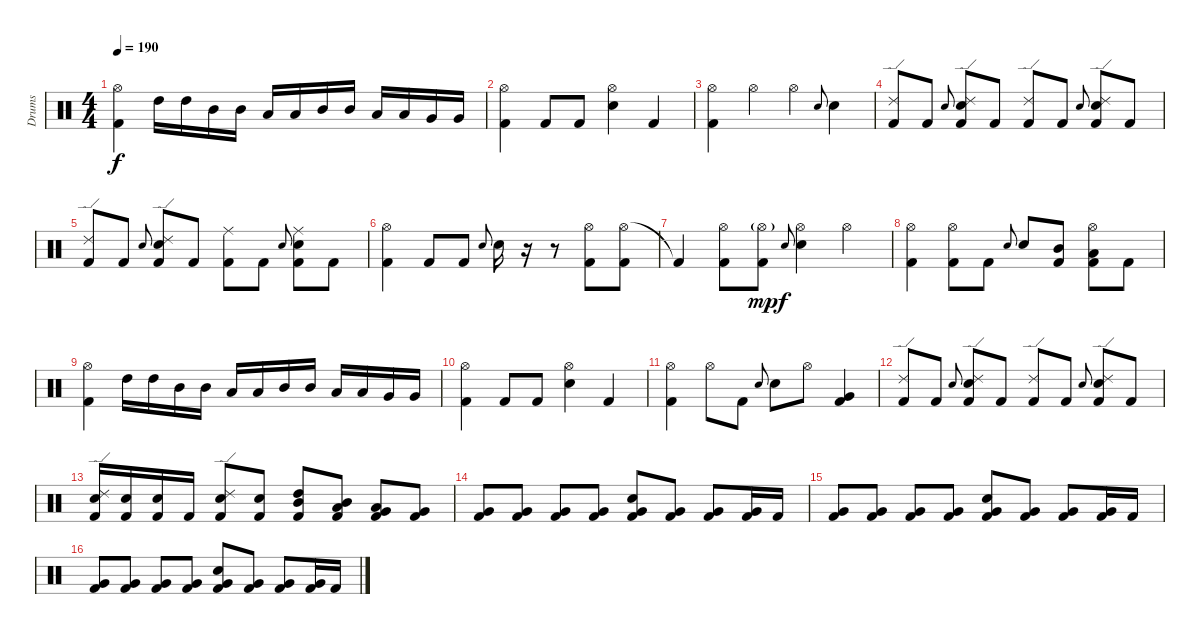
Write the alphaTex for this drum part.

\track ("Drums" "Drums") {instrument percussion}
\staff {score}
\articulation defaults
\ts (4 4)
\tempo 190
\clef neutral
\ks c
("Hi-Hat (open)" "Kick (hit) 2").4{dy f} "High Tom (hit)".16 "High Tom (hit)".16 "Mid Tom (hit)".16 "Mid Tom (hit)".16 "Low Tom (hit)".16 "Low Tom (hit)".16 "Mid Tom (hit)".16 "Mid Tom (hit)".16 "Low Tom (hit)".16 "Low Tom (hit)".16 "Very Low Tom (hit)".16 "Very Low Tom (hit)".16 |
("Hi-Hat (open)" "Kick (hit) 2").4 "Kick (hit) 2".8 "Kick (hit) 2".8 ("Hi-Hat (open)" "Snare (hit) 2").4 "Kick (hit) 2".4 |
("Hi-Hat (open)" "Kick (hit) 2").4 "Hi-Hat (open)".4 "Hi-Hat (open)".4 "Snare (hit) 2".8{gr onbeat} "Snare (hit) 2".4 |
("Ride (edge) 2" "Kick (hit) 2").8 "Kick (hit) 2".8 "Snare (hit) 2".8{gr onbeat} ("Ride (edge) 2" "Snare (hit) 2" "Kick (hit) 2").8 "Kick (hit) 2".8 ("Ride (edge) 2" "Kick (hit) 2").8 "Kick (hit) 2".8 "Snare (hit) 2".8{gr onbeat} ("Ride (edge) 2" "Snare (hit) 2" "Kick (hit) 2").8 "Kick (hit) 2".8 |
("Ride (edge) 2" "Kick (hit) 2").8 "Kick (hit) 2".8 "Snare (hit) 2".8{gr onbeat} ("Ride (edge) 2" "Snare (hit) 2" "Kick (hit) 2").8 "Kick (hit) 2".8 ("Ride (middle)" "Kick (hit) 2").8 "Kick (hit) 2".8 "Snare (hit) 2".8{gr onbeat} ("Ride (middle)" "Snare (hit) 2" "Kick (hit) 2").8 "Kick (hit) 2".8 |
("Hi-Hat (open)" "Kick (hit) 2").4 "Kick (hit) 2".8 "Kick (hit) 2".8 "Snare (hit) 2".8{gr onbeat} "Snare (hit) 2".16 r.16 r.8 ("Hi-Hat (open)" "Kick (hit) 2").8 ("Hi-Hat (open)" "Kick (hit) 2").8 |
"Kick (hit) 2"{t}.4 ("Hi-Hat (open)" "Kick (hit) 2").8 ("Hi-Hat (open)"{g} "Kick (hit) 2").8{dy mp} "Snare (hit) 2".8{gr onbeat dy f} ("Hi-Hat (open)" "Snare (hit) 2").4 "Hi-Hat (open)".4 |
("Hi-Hat (open)" "Kick (hit) 2").4 ("Hi-Hat (open)" "Kick (hit) 2").8 "Kick (hit) 2".8 "Snare (hit) 2".8{gr onbeat} "Snare (hit) 2".8 ("Mid Tom (hit)" "Kick (hit) 2").8 ("Hi-Hat (open)" "Low Tom (hit)" "Kick (hit) 2").8 "Kick (hit) 2".8 |
("Hi-Hat (open)" "Kick (hit) 2").4 "High Tom (hit)".16 "High Tom (hit)".16 "Mid Tom (hit)".16 "Mid Tom (hit)".16 "Low Tom (hit)".16 "Low Tom (hit)".16 "Mid Tom (hit)".16 "Mid Tom (hit)".16 "Low Tom (hit)".16 "Low Tom (hit)".16 "Very Low Tom (hit)".16 "Very Low Tom (hit)".16 |
("Hi-Hat (open)" "Kick (hit) 2").4 "Kick (hit) 2".8 "Kick (hit) 2".8 ("Hi-Hat (open)" "Snare (hit) 2").4 "Kick (hit) 2".4 |
("Hi-Hat (open)" "Kick (hit) 2").4 "Hi-Hat (open)".8 "Kick (hit) 2".8 "Snare (hit) 2".8{gr onbeat} "Snare (hit) 2".8 "Hi-Hat (open)".8 ("Very Low Tom (hit)" "Kick (hit) 2").4 |
("Ride (edge) 2" "Kick (hit) 2").8 "Kick (hit) 2".8 "Snare (hit) 2".8{gr onbeat} ("Ride (edge) 2" "Snare (hit) 2" "Kick (hit) 2").8 "Kick (hit) 2".8 ("Ride (edge) 2" "Kick (hit) 2").8 "Kick (hit) 2".8 "Snare (hit) 2".8{gr onbeat} ("Ride (edge) 2" "Snare (hit) 2" "Kick (hit) 2").8 "Kick (hit) 2".8 |
("Ride (edge) 2" "Snare (hit) 2" "Kick (hit) 2").16 ("Snare (hit) 2" "Kick (hit) 2").16 ("Snare (hit) 2" "Kick (hit) 2").16 "Kick (hit) 2".16 ("Ride (edge) 2" "Snare (hit) 2" "Kick (hit) 2").8 ("Snare (hit) 2" "Kick (hit) 2").8 ("High Tom (hit)" "Mid Tom (hit)" "Kick (hit) 2").8 ("Mid Tom (hit)" "Low Tom (hit)" "Kick (hit) 2").8 ("Low Tom (hit)" "Very Low Tom (hit)" "Kick (hit) 2").8 ("Very Low Tom (hit)" "Kick (hit) 2").8 |
("Very Low Tom (hit)" "Kick (hit) 2").8 ("Very Low Tom (hit)" "Kick (hit) 2").8 ("Very Low Tom (hit)" "Kick (hit) 2").8 ("Very Low Tom (hit)" "Kick (hit) 2").8 ("Very Low Tom (hit)" "Snare (hit) 2" "Kick (hit) 2").8 ("Very Low Tom (hit)" "Kick (hit) 2").8 ("Very Low Tom (hit)" "Kick (hit) 2").8 ("Very Low Tom (hit)" "Kick (hit) 2").16 "Kick (hit) 2".16 |
("Very Low Tom (hit)" "Kick (hit) 2").8 ("Very Low Tom (hit)" "Kick (hit) 2").8 ("Very Low Tom (hit)" "Kick (hit) 2").8 ("Very Low Tom (hit)" "Kick (hit) 2").8 ("Very Low Tom (hit)" "Snare (hit) 2" "Kick (hit) 2").8 ("Very Low Tom (hit)" "Kick (hit) 2").8 ("Very Low Tom (hit)" "Kick (hit) 2").8 ("Very Low Tom (hit)" "Kick (hit) 2").16 "Kick (hit) 2".16 |
("Very Low Tom (hit)" "Kick (hit) 2").8 ("Very Low Tom (hit)" "Kick (hit) 2").8 ("Very Low Tom (hit)" "Kick (hit) 2").8 ("Very Low Tom (hit)" "Kick (hit) 2").8 ("Very Low Tom (hit)" "Snare (hit) 2" "Kick (hit) 2").8 ("Very Low Tom (hit)" "Kick (hit) 2").8 ("Very Low Tom (hit)" "Kick (hit) 2").8 ("Very Low Tom (hit)" "Kick (hit) 2").16 "Kick (hit) 2".16
